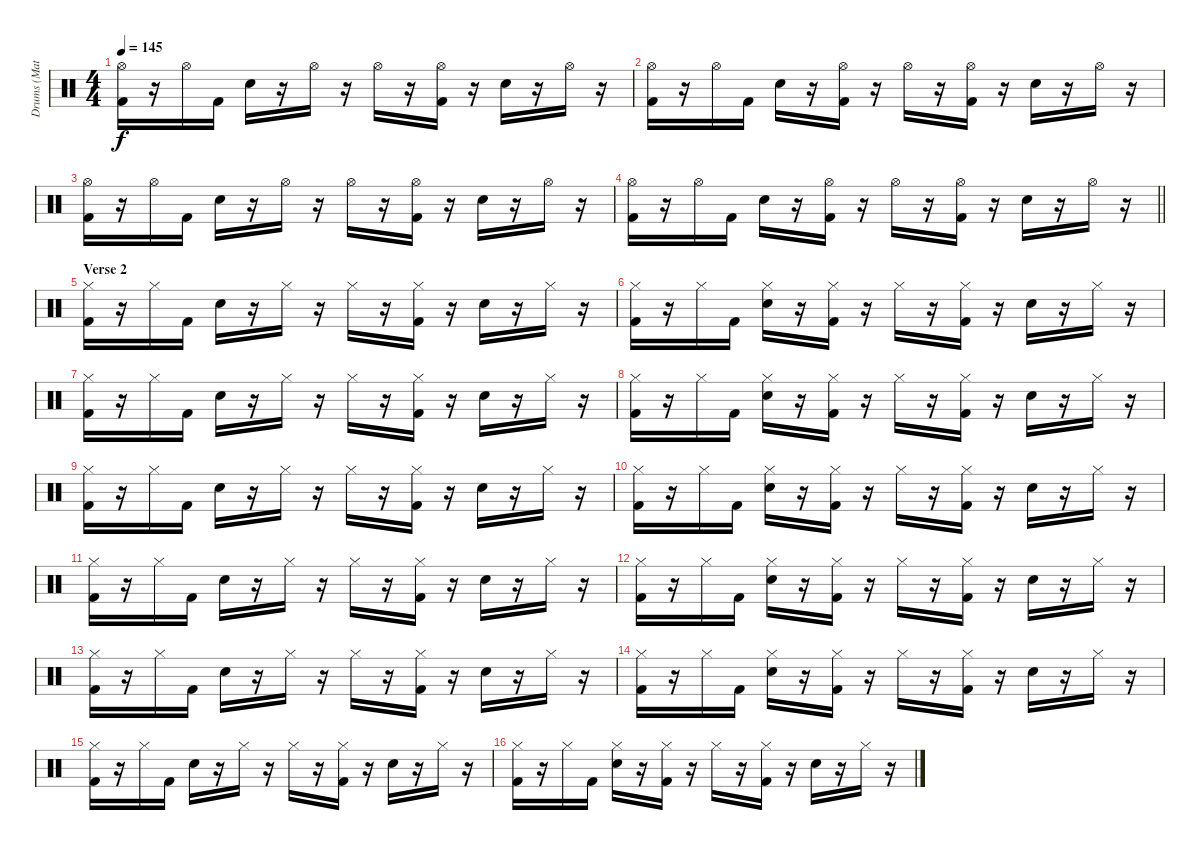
\track ("Drums (Matt)" "Drums (Mat") {instrument percussion}
\staff {score}
\articulation defaults
\ts (4 4)
\tempo 145
\clef neutral
\ks c
("Hi-Hat (open)" "Kick (hit) 2").16{dy f} r.16 "Hi-Hat (open)".16 "Kick (hit) 2".16 "Electric Snare (hit)".16 r.16 "Hi-Hat (open)".16 r.16 "Hi-Hat (open)".16 r.16 ("Hi-Hat (open)" "Kick (hit) 2").16 r.16 "Electric Snare (hit)".16 r.16 "Hi-Hat (open)".16 r.16 |
("Hi-Hat (open)" "Kick (hit) 2").16 r.16 "Hi-Hat (open)".16 "Kick (hit) 2".16 "Electric Snare (hit)".16 r.16 ("Hi-Hat (open)" "Kick (hit) 2").16 r.16 "Hi-Hat (open)".16 r.16 ("Hi-Hat (open)" "Kick (hit) 2").16 r.16 "Electric Snare (hit)".16 r.16 "Hi-Hat (open)".16 r.16 |
("Hi-Hat (open)" "Kick (hit) 2").16 r.16 "Hi-Hat (open)".16 "Kick (hit) 2".16 "Electric Snare (hit)".16 r.16 "Hi-Hat (open)".16 r.16 "Hi-Hat (open)".16 r.16 ("Hi-Hat (open)" "Kick (hit) 2").16 r.16 "Electric Snare (hit)".16 r.16 "Hi-Hat (open)".16 r.16 |
\barLineRight lightlight
("Hi-Hat (open)" "Kick (hit) 2").16 r.16 "Hi-Hat (open)".16 "Kick (hit) 2".16 "Electric Snare (hit)".16 r.16 ("Hi-Hat (open)" "Kick (hit) 2").16 r.16 "Hi-Hat (open)".16 r.16 ("Hi-Hat (open)" "Kick (hit) 2").16 r.16 "Electric Snare (hit)".16 r.16 "Hi-Hat (open)".16 r.16 |
\section ("" "Verse 2")
("Hi-Hat (closed)" "Kick (hit) 2").16 r.16 "Hi-Hat (closed)".16 "Kick (hit) 2".16 "Electric Snare (hit)".16 r.16 "Hi-Hat (closed)".16 r.16 "Hi-Hat (closed)".16 r.16 ("Hi-Hat (closed)" "Kick (hit) 2").16 r.16 "Electric Snare (hit)".16 r.16 "Hi-Hat (closed)".16 r.16 |
("Hi-Hat (closed)" "Kick (hit) 2").16 r.16 "Hi-Hat (closed)".16 "Kick (hit) 2".16 ("Hi-Hat (closed)" "Electric Snare (hit)").16 r.16 ("Hi-Hat (closed)" "Kick (hit) 2").16 r.16 "Hi-Hat (closed)".16 r.16 ("Hi-Hat (closed)" "Kick (hit) 2").16 r.16 "Electric Snare (hit)".16 r.16 "Hi-Hat (closed)".16 r.16 |
("Hi-Hat (closed)" "Kick (hit) 2").16 r.16 "Hi-Hat (closed)".16 "Kick (hit) 2".16 "Electric Snare (hit)".16 r.16 "Hi-Hat (closed)".16 r.16 "Hi-Hat (closed)".16 r.16 ("Hi-Hat (closed)" "Kick (hit) 2").16 r.16 "Electric Snare (hit)".16 r.16 "Hi-Hat (closed)".16 r.16 |
("Hi-Hat (closed)" "Kick (hit) 2").16 r.16 "Hi-Hat (closed)".16 "Kick (hit) 2".16 ("Hi-Hat (closed)" "Electric Snare (hit)").16 r.16 ("Hi-Hat (closed)" "Kick (hit) 2").16 r.16 "Hi-Hat (closed)".16 r.16 ("Hi-Hat (closed)" "Kick (hit) 2").16 r.16 "Electric Snare (hit)".16 r.16 "Hi-Hat (closed)".16 r.16 |
("Hi-Hat (closed)" "Kick (hit) 2").16 r.16 "Hi-Hat (closed)".16 "Kick (hit) 2".16 "Electric Snare (hit)".16 r.16 "Hi-Hat (closed)".16 r.16 "Hi-Hat (closed)".16 r.16 ("Hi-Hat (closed)" "Kick (hit) 2").16 r.16 "Electric Snare (hit)".16 r.16 "Hi-Hat (closed)".16 r.16 |
("Hi-Hat (closed)" "Kick (hit) 2").16 r.16 "Hi-Hat (closed)".16 "Kick (hit) 2".16 ("Hi-Hat (closed)" "Electric Snare (hit)").16 r.16 ("Hi-Hat (closed)" "Kick (hit) 2").16 r.16 "Hi-Hat (closed)".16 r.16 ("Hi-Hat (closed)" "Kick (hit) 2").16 r.16 "Electric Snare (hit)".16 r.16 "Hi-Hat (closed)".16 r.16 |
("Hi-Hat (closed)" "Kick (hit) 2").16 r.16 "Hi-Hat (closed)".16 "Kick (hit) 2".16 "Electric Snare (hit)".16 r.16 "Hi-Hat (closed)".16 r.16 "Hi-Hat (closed)".16 r.16 ("Hi-Hat (closed)" "Kick (hit) 2").16 r.16 "Electric Snare (hit)".16 r.16 "Hi-Hat (closed)".16 r.16 |
("Hi-Hat (closed)" "Kick (hit) 2").16 r.16 "Hi-Hat (closed)".16 "Kick (hit) 2".16 ("Hi-Hat (closed)" "Electric Snare (hit)").16 r.16 ("Hi-Hat (closed)" "Kick (hit) 2").16 r.16 "Hi-Hat (closed)".16 r.16 ("Hi-Hat (closed)" "Kick (hit) 2").16 r.16 "Electric Snare (hit)".16 r.16 "Hi-Hat (closed)".16 r.16 |
("Hi-Hat (closed)" "Kick (hit) 2").16 r.16 "Hi-Hat (closed)".16 "Kick (hit) 2".16 "Electric Snare (hit)".16 r.16 "Hi-Hat (closed)".16 r.16 "Hi-Hat (closed)".16 r.16 ("Hi-Hat (closed)" "Kick (hit) 2").16 r.16 "Electric Snare (hit)".16 r.16 "Hi-Hat (closed)".16 r.16 |
("Hi-Hat (closed)" "Kick (hit) 2").16 r.16 "Hi-Hat (closed)".16 "Kick (hit) 2".16 ("Hi-Hat (closed)" "Electric Snare (hit)").16 r.16 ("Hi-Hat (closed)" "Kick (hit) 2").16 r.16 "Hi-Hat (closed)".16 r.16 ("Hi-Hat (closed)" "Kick (hit) 2").16 r.16 "Electric Snare (hit)".16 r.16 "Hi-Hat (closed)".16 r.16 |
("Hi-Hat (closed)" "Kick (hit) 2").16 r.16 "Hi-Hat (closed)".16 "Kick (hit) 2".16 "Electric Snare (hit)".16 r.16 "Hi-Hat (closed)".16 r.16 "Hi-Hat (closed)".16 r.16 ("Hi-Hat (closed)" "Kick (hit) 2").16 r.16 "Electric Snare (hit)".16 r.16 "Hi-Hat (closed)".16 r.16 |
("Hi-Hat (closed)" "Kick (hit) 2").16 r.16 "Hi-Hat (closed)".16 "Kick (hit) 2".16 ("Hi-Hat (closed)" "Electric Snare (hit)").16 r.16 ("Hi-Hat (closed)" "Kick (hit) 2").16 r.16 "Hi-Hat (closed)".16 r.16 ("Hi-Hat (closed)" "Kick (hit) 2").16 r.16 "Electric Snare (hit)".16 r.16 "Hi-Hat (closed)".16 r.16
